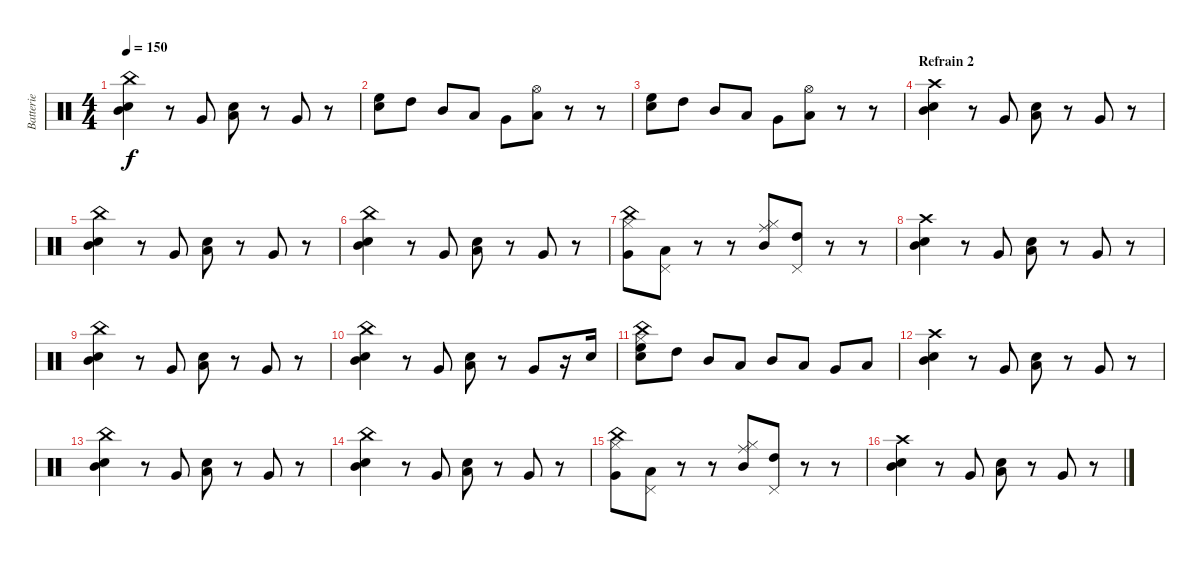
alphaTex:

\track ("Batterie" "Batterie") {instrument percussion}
\staff {score}
\articulation defaults
\ts (4 4)
\tempo 150
\clef neutral
\ks c
("Mid Tom (hit)" "Electric Snare (hit)" "China (hit)").4{dy f} r.8 "Very Low Tom (hit)".8 ("Low Tom (hit)" "Electric Snare (hit)").8 r.8 "Very Low Tom (hit)".8 r.8 |
("High Floor Tom (hit)" "Electric Snare (hit)").8 "High Tom (hit)".8 "Mid Tom (hit)".8 "Low Tom (hit)".8 "Very Low Tom (hit)".8 ("Low Floor Tom (hit)" "Hi-Hat (open)").8 r.8 r.8 |
("High Floor Tom (hit)" "Electric Snare (hit)").8 "High Tom (hit)".8 "Mid Tom (hit)".8 "Low Tom (hit)".8 "Very Low Tom (hit)".8 ("Low Floor Tom (hit)" "Hi-Hat (open)").8 r.8 r.8 |
\section ("" "Refrain 2")
("Mid Tom (hit)" "Electric Snare (hit)" "Crash high (hit)").4 r.8 "Very Low Tom (hit)".8 ("Low Tom (hit)" "Electric Snare (hit)").8 r.8 "Very Low Tom (hit)".8 r.8 |
("Mid Tom (hit)" "Electric Snare (hit)" "China (hit)").4 r.8 "Very Low Tom (hit)".8 ("Low Tom (hit)" "Electric Snare (hit)").8 r.8 "Very Low Tom (hit)".8 r.8 |
("Mid Tom (hit)" "Electric Snare (hit)" "China (hit)").4 r.8 "Very Low Tom (hit)".8 ("Low Tom (hit)" "Electric Snare (hit)").8 r.8 "Very Low Tom (hit)".8 r.8 |
("Hi-Hat (closed)" "Very Low Tom (hit)" "China (hit)").8 ("Pedal Hi-Hat (hit)" "Low Tom (hit)").8 r.8 r.8 ("Hi-Hat (closed)" "Mid Tom (hit)" "Ride (middle)").8 ("Pedal Hi-Hat (hit)" "High Tom (hit)").8 r.8 r.8 |
("Mid Tom (hit)" "Electric Snare (hit)" "Crash high (hit)").4 r.8 "Very Low Tom (hit)".8 ("Low Tom (hit)" "Electric Snare (hit)").8 r.8 "Very Low Tom (hit)".8 r.8 |
("Mid Tom (hit)" "Electric Snare (hit)" "China (hit)").4 r.8 "Very Low Tom (hit)".8 ("Low Tom (hit)" "Electric Snare (hit)").8 r.8 "Very Low Tom (hit)".8 r.8 |
("Mid Tom (hit)" "Electric Snare (hit)" "China (hit)").4 r.8 "Very Low Tom (hit)".8 ("Low Tom (hit)" "Electric Snare (hit)").8 r.8 "Very Low Tom (hit)".8 r.16 "Electric Snare (hit)".16 |
("Hi-Hat (closed)" "High Floor Tom (hit)" "China (hit)" "Snare (hit) 2").8 "High Tom (hit)".8 "Mid Tom (hit)".8 "Low Floor Tom (hit)".8 "Mid Tom (hit)".8 "Low Tom (hit)".8 "Very Low Tom (hit)".8 "Low Floor Tom (hit)".8 |
("Mid Tom (hit)" "Electric Snare (hit)" "Crash high (hit)").4 r.8 "Very Low Tom (hit)".8 ("Low Tom (hit)" "Electric Snare (hit)").8 r.8 "Very Low Tom (hit)".8 r.8 |
("Mid Tom (hit)" "Electric Snare (hit)" "China (hit)").4 r.8 "Very Low Tom (hit)".8 ("Low Tom (hit)" "Electric Snare (hit)").8 r.8 "Very Low Tom (hit)".8 r.8 |
("Mid Tom (hit)" "Electric Snare (hit)" "China (hit)").4 r.8 "Very Low Tom (hit)".8 ("Low Tom (hit)" "Electric Snare (hit)").8 r.8 "Very Low Tom (hit)".8 r.8 |
("Hi-Hat (closed)" "Very Low Tom (hit)" "China (hit)").8 ("Pedal Hi-Hat (hit)" "Low Tom (hit)").8 r.8 r.8 ("Hi-Hat (closed)" "Mid Tom (hit)" "Ride (middle)").8 ("Pedal Hi-Hat (hit)" "High Tom (hit)").8 r.8 r.8 |
("Mid Tom (hit)" "Electric Snare (hit)" "Crash high (hit)").4 r.8 "Very Low Tom (hit)".8 ("Low Tom (hit)" "Electric Snare (hit)").8 r.8 "Very Low Tom (hit)".8 r.8
